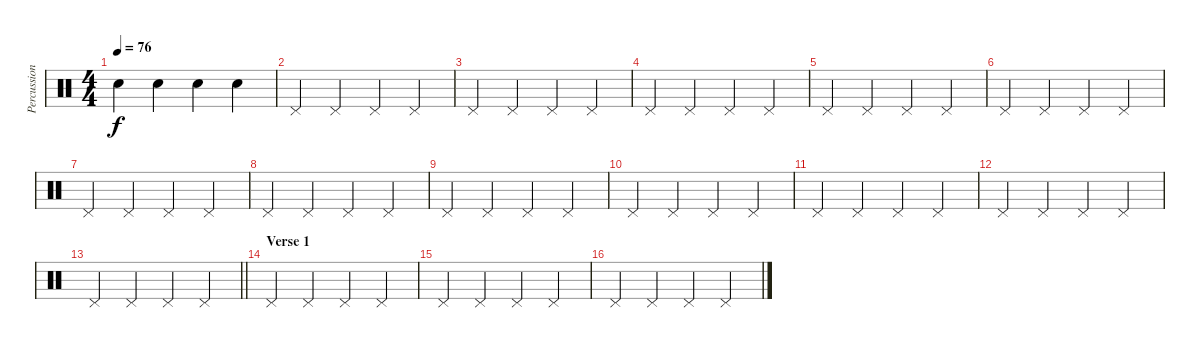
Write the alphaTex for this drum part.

\track ("Percussion" "Percussion") {instrument percussion}
\staff {score}
\articulation defaults
\ts (4 4)
\tempo 76
\clef neutral
\ks c "Metronome (bell)".4{dy f} "Metronome (bell)".4{beam merge} "Metronome (bell)".4 "Metronome (bell)".4
|
"Pedal Hi-Hat (hit)".4{beam merge} "Pedal Hi-Hat (hit)".4 "Pedal Hi-Hat (hit)".4 "Pedal Hi-Hat (hit)".4 |
"Pedal Hi-Hat (hit)".4{beam merge} "Pedal Hi-Hat (hit)".4{beam merge} "Pedal Hi-Hat (hit)".4 "Pedal Hi-Hat (hit)".4 |
"Pedal Hi-Hat (hit)".4 "Pedal Hi-Hat (hit)".4 "Pedal Hi-Hat (hit)".4 "Pedal Hi-Hat (hit)".4 |
"Pedal Hi-Hat (hit)".4{beam merge} "Pedal Hi-Hat (hit)".4 "Pedal Hi-Hat (hit)".4 "Pedal Hi-Hat (hit)".4 |
"Pedal Hi-Hat (hit)".4 "Pedal Hi-Hat (hit)".4 "Pedal Hi-Hat (hit)".4 "Pedal Hi-Hat (hit)".4 |
"Pedal Hi-Hat (hit)".4{beam merge} "Pedal Hi-Hat (hit)".4 "Pedal Hi-Hat (hit)".4 "Pedal Hi-Hat (hit)".4 |
"Pedal Hi-Hat (hit)".4 "Pedal Hi-Hat (hit)".4 "Pedal Hi-Hat (hit)".4 "Pedal Hi-Hat (hit)".4 |
"Pedal Hi-Hat (hit)".4{beam merge} "Pedal Hi-Hat (hit)".4 "Pedal Hi-Hat (hit)".4 "Pedal Hi-Hat (hit)".4 |
"Pedal Hi-Hat (hit)".4 "Pedal Hi-Hat (hit)".4 "Pedal Hi-Hat (hit)".4 "Pedal Hi-Hat (hit)".4 |
"Pedal Hi-Hat (hit)".4{beam merge} "Pedal Hi-Hat (hit)".4 "Pedal Hi-Hat (hit)".4 "Pedal Hi-Hat (hit)".4 |
"Pedal Hi-Hat (hit)".4 "Pedal Hi-Hat (hit)".4 "Pedal Hi-Hat (hit)".4 "Pedal Hi-Hat (hit)".4 |
\barLineRight lightlight "Pedal Hi-Hat (hit)".4{beam merge} "Pedal Hi-Hat (hit)".4 "Pedal Hi-Hat (hit)".4 "Pedal Hi-Hat (hit)".4
|
\section ("" "Verse 1")
"Pedal Hi-Hat (hit)".4{beam merge} "Pedal Hi-Hat (hit)".4 "Pedal Hi-Hat (hit)".4 "Pedal Hi-Hat (hit)".4 |
"Pedal Hi-Hat (hit)".4{beam merge} "Pedal Hi-Hat (hit)".4{beam merge} "Pedal Hi-Hat (hit)".4 "Pedal Hi-Hat (hit)".4 |
"Pedal Hi-Hat (hit)".4 "Pedal Hi-Hat (hit)".4 "Pedal Hi-Hat (hit)".4 "Pedal Hi-Hat (hit)".4
